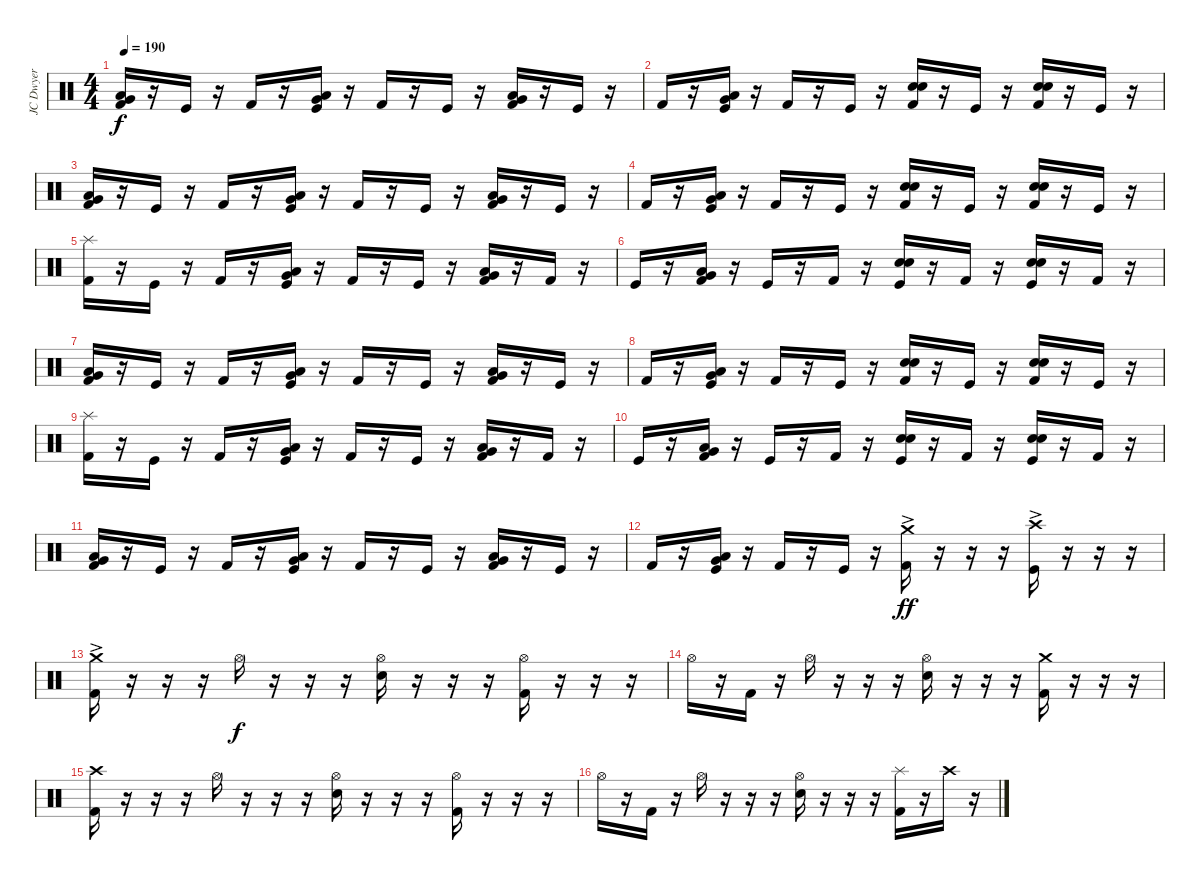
\track ("JC Dwyer" "JC Dwyer") {instrument percussion}
\staff {score}
\articulation defaults
\ts (4 4)
\tempo 190
\clef neutral
\ks c
("Very Low Tom (hit)" "Low Floor Tom (hit)" "Kick (hit) 2").16{dy f} r.16 "Kick (hit)".16 r.16 "Kick (hit) 2".16 r.16 ("Very Low Tom (hit)" "Low Floor Tom (hit)" "Kick (hit)").16 r.16 "Kick (hit) 2".16 r.16 "Kick (hit)".16 r.16 ("Very Low Tom (hit)" "Low Floor Tom (hit)" "Kick (hit) 2").16 r.16 "Kick (hit)".16 r.16 |
"Kick (hit) 2".16 r.16 ("Very Low Tom (hit)" "Low Floor Tom (hit)" "Kick (hit)").16 r.16 "Kick (hit) 2".16 r.16 "Kick (hit)".16 r.16 ("Electric Snare (hit)" "Electric Snare (hit)" "Kick (hit) 2").16 r.16 "Kick (hit)".16 r.16 ("Electric Snare (hit)" "Electric Snare (hit)" "Kick (hit) 2").16 r.16 "Kick (hit)".16 r.16 |
("Very Low Tom (hit)" "Low Floor Tom (hit)" "Kick (hit) 2").16 r.16 "Kick (hit)".16 r.16 "Kick (hit) 2".16 r.16 ("Very Low Tom (hit)" "Low Floor Tom (hit)" "Kick (hit)").16 r.16 "Kick (hit) 2".16 r.16 "Kick (hit)".16 r.16 ("Very Low Tom (hit)" "Low Floor Tom (hit)" "Kick (hit) 2").16 r.16 "Kick (hit)".16 r.16 |
"Kick (hit) 2".16 r.16 ("Very Low Tom (hit)" "Low Floor Tom (hit)" "Kick (hit)").16 r.16 "Kick (hit) 2".16 r.16 "Kick (hit)".16 r.16 ("Electric Snare (hit)" "Electric Snare (hit)" "Kick (hit) 2").16 r.16 "Kick (hit)".16 r.16 ("Electric Snare (hit)" "Electric Snare (hit)" "Kick (hit) 2").16 r.16 "Kick (hit)".16 r.16 |
("Splash (hit)" "Kick (hit) 2").16 r.16 "Kick (hit)".16 r.16 "Kick (hit) 2".16 r.16 ("Very Low Tom (hit)" "Low Floor Tom (hit)" "Kick (hit)").16 r.16 "Kick (hit) 2".16 r.16 "Kick (hit)".16 r.16 ("Very Low Tom (hit)" "Low Floor Tom (hit)" "Kick (hit) 2").16 r.16 "Kick (hit) 2".16 r.16 |
"Kick (hit)".16 r.16 ("Very Low Tom (hit)" "Low Floor Tom (hit)" "Kick (hit) 2").16 r.16 "Kick (hit)".16 r.16 "Kick (hit) 2".16 r.16 ("Electric Snare (hit)" "Electric Snare (hit)" "Kick (hit)").16 r.16 "Kick (hit) 2".16 r.16 ("Electric Snare (hit)" "Electric Snare (hit)" "Kick (hit)").16 r.16 "Kick (hit) 2".16 r.16 |
("Very Low Tom (hit)" "Low Floor Tom (hit)" "Kick (hit) 2").16 r.16 "Kick (hit)".16 r.16 "Kick (hit) 2".16 r.16 ("Very Low Tom (hit)" "Low Floor Tom (hit)" "Kick (hit)").16 r.16 "Kick (hit) 2".16 r.16 "Kick (hit)".16 r.16 ("Very Low Tom (hit)" "Low Floor Tom (hit)" "Kick (hit) 2").16 r.16 "Kick (hit)".16 r.16 |
"Kick (hit) 2".16 r.16 ("Very Low Tom (hit)" "Low Floor Tom (hit)" "Kick (hit)").16 r.16 "Kick (hit) 2".16 r.16 "Kick (hit)".16 r.16 ("Electric Snare (hit)" "Electric Snare (hit)" "Kick (hit) 2").16 r.16 "Kick (hit)".16 r.16 ("Electric Snare (hit)" "Electric Snare (hit)" "Kick (hit) 2").16 r.16 "Kick (hit)".16 r.16 |
("Splash (hit)" "Kick (hit) 2").16 r.16 "Kick (hit)".16 r.16 "Kick (hit) 2".16 r.16 ("Very Low Tom (hit)" "Low Floor Tom (hit)" "Kick (hit)").16 r.16 "Kick (hit) 2".16 r.16 "Kick (hit)".16 r.16 ("Very Low Tom (hit)" "Low Floor Tom (hit)" "Kick (hit) 2").16 r.16 "Kick (hit) 2".16 r.16 |
"Kick (hit)".16 r.16 ("Very Low Tom (hit)" "Low Floor Tom (hit)" "Kick (hit) 2").16 r.16 "Kick (hit)".16 r.16 "Kick (hit) 2".16 r.16 ("Electric Snare (hit)" "Electric Snare (hit)" "Kick (hit)").16 r.16 "Kick (hit) 2".16 r.16 ("Electric Snare (hit)" "Electric Snare (hit)" "Kick (hit)").16 r.16 "Kick (hit) 2".16 r.16 |
("Very Low Tom (hit)" "Low Floor Tom (hit)" "Kick (hit) 2").16 r.16 "Kick (hit)".16 r.16 "Kick (hit) 2".16 r.16 ("Very Low Tom (hit)" "Low Floor Tom (hit)" "Kick (hit)").16 r.16 "Kick (hit) 2".16 r.16 "Kick (hit)".16 r.16 ("Very Low Tom (hit)" "Low Floor Tom (hit)" "Kick (hit) 2").16 r.16 "Kick (hit)".16 r.16 |
"Kick (hit) 2".16 r.16 ("Very Low Tom (hit)" "Low Floor Tom (hit)" "Kick (hit)").16 r.16 "Kick (hit) 2".16 r.16 "Kick (hit)".16 r.16 ("Crash medium (hit)"{ac} "Kick (hit) 2").16{dy ff} r.16 r.16 r.16 ("Crash high (hit)"{ac} "Kick (hit)").16 r.16 r.16 r.16 |
("Crash medium (hit)"{ac} "Kick (hit) 2").16 r.16 r.16 r.16 "Hi-Hat (open)".16{dy f} r.16 r.16 r.16 ("Hi-Hat (open)" "Electric Snare (hit)").16 r.16 r.16 r.16 ("Hi-Hat (open)" "Kick (hit) 2").16 r.16 r.16 r.16 |
"Hi-Hat (open)".16 r.16 "Kick (hit) 2".16 r.16 "Hi-Hat (open)".16 r.16 r.16 r.16 ("Hi-Hat (open)" "Electric Snare (hit)").16 r.16 r.16 r.16 ("Crash medium (hit)" "Kick (hit) 2").16 r.16 r.16 r.16 |
("Crash high (hit)" "Kick (hit) 2").16 r.16 r.16 r.16 "Hi-Hat (open)".16 r.16 r.16 r.16 ("Hi-Hat (open)" "Electric Snare (hit)").16 r.16 r.16 r.16 ("Hi-Hat (open)" "Kick (hit) 2").16 r.16 r.16 r.16 |
"Hi-Hat (open)".16 r.16 "Kick (hit) 2".16 r.16 "Hi-Hat (open)".16 r.16 r.16 r.16 ("Hi-Hat (open)" "Electric Snare (hit)").16 r.16 r.16 r.16 ("Splash (hit)" "Kick (hit) 2").16 r.16 "Crash high (hit)".16 r.16
